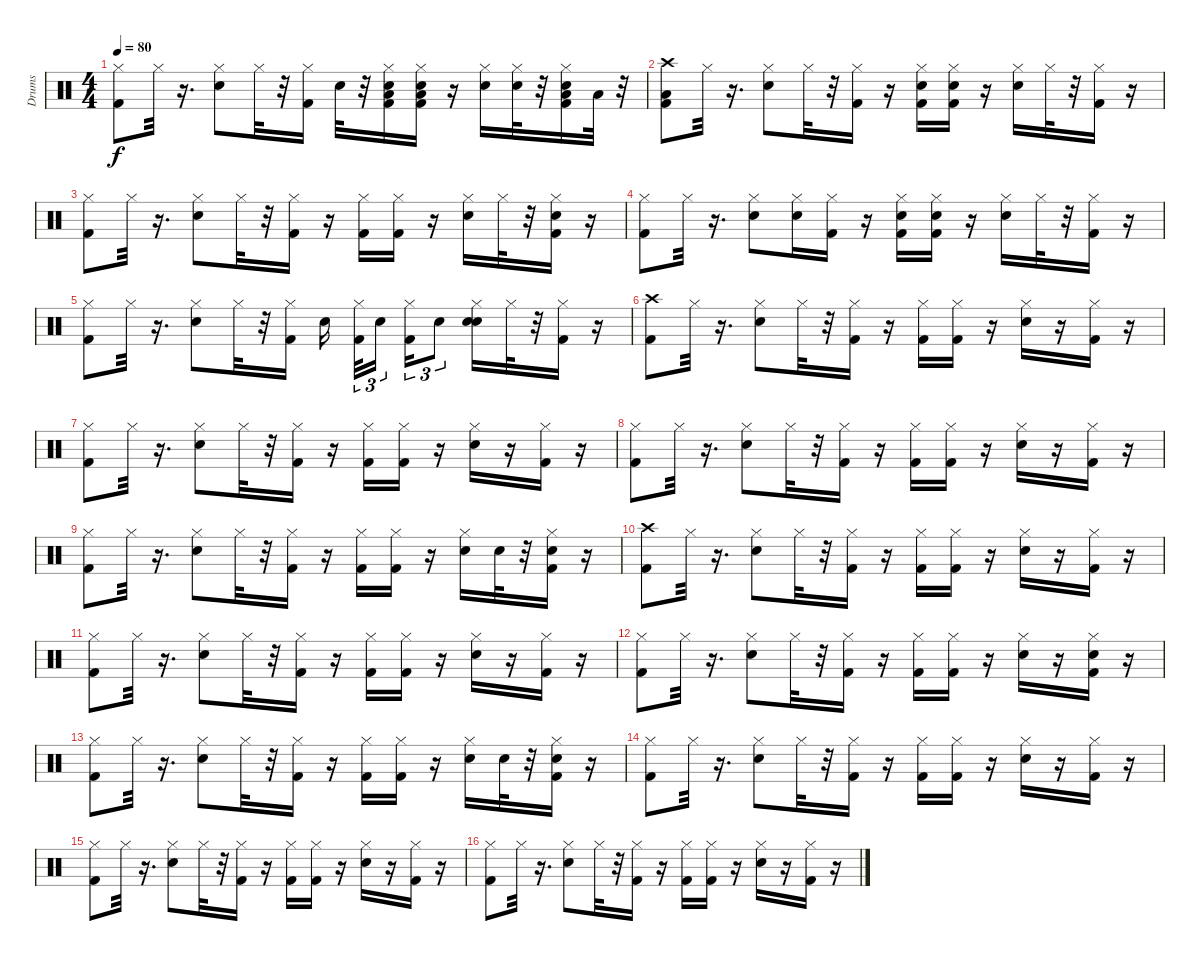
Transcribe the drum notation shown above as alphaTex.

\track ("Drums" "Drums") {instrument percussion}
\staff {score}
\articulation defaults
\ts (4 4)
\tempo 80
\clef neutral
\ks c
("Hi-Hat (closed)" "Kick (hit) 2").8{dy f} "Hi-Hat (closed)".32 r.16{d} ("Hi-Hat (closed)" "Snare (hit) 2").8 "Hi-Hat (closed)".32 r.32 ("Kick (hit) 2" "Hi-Hat (closed)").16 "Snare (hit) 2".32 r.32 ("Low Floor Tom (hit)" "Snare (hit) 2" "Hi-Hat (closed)" "Kick (hit) 2").16 ("Low Floor Tom (hit)" "Snare (hit) 2" "Hi-Hat (closed)" "Kick (hit) 2").16 r.16 ("Hi-Hat (closed)" "Snare (hit) 2").16 ("Snare (hit) 2" "Hi-Hat (closed)").32 r.32 ("Low Floor Tom (hit)" "Snare (hit) 2" "Hi-Hat (closed)" "Kick (hit) 2").16 "Low Floor Tom (hit)".32 r.32 |
("Low Floor Tom (hit)" "Crash high (hit)" "Kick (hit) 2").8 "Hi-Hat (closed)".32 r.16{d} ("Hi-Hat (closed)" "Snare (hit) 2").8 "Hi-Hat (closed)".32 r.32 ("Kick (hit) 2" "Hi-Hat (closed)").16 r.16 ("Snare (hit) 2" "Hi-Hat (closed)" "Kick (hit) 2").16 ("Snare (hit) 2" "Hi-Hat (closed)" "Kick (hit) 2").16 r.16 ("Hi-Hat (closed)" "Snare (hit) 2").16 "Hi-Hat (closed)".32 r.32 ("Hi-Hat (closed)" "Kick (hit) 2").16 r.16 |
("Hi-Hat (closed)" "Kick (hit) 2").8 "Hi-Hat (closed)".32 r.16{d} ("Hi-Hat (closed)" "Snare (hit) 2").8 "Hi-Hat (closed)".32 r.32 ("Kick (hit) 2" "Hi-Hat (closed)").16 r.16 ("Hi-Hat (closed)" "Kick (hit) 2").16 ("Hi-Hat (closed)" "Kick (hit) 2").16 r.16 ("Hi-Hat (closed)" "Snare (hit) 2").16 "Hi-Hat (closed)".32 r.32 ("Snare (hit) 2" "Hi-Hat (closed)" "Kick (hit) 2").16 r.16 |
("Hi-Hat (closed)" "Kick (hit) 2").8 "Hi-Hat (closed)".32 r.16{d} ("Hi-Hat (closed)" "Snare (hit) 2").8 ("Hi-Hat (closed)" "Snare (hit) 2").16 ("Kick (hit) 2" "Hi-Hat (closed)").16 r.16 ("Snare (hit) 2" "Hi-Hat (closed)" "Kick (hit) 2").16 ("Snare (hit) 2" "Hi-Hat (closed)" "Kick (hit) 2").16 r.16 ("Hi-Hat (closed)" "Snare (hit) 2").16 "Hi-Hat (closed)".32 r.32 ("Hi-Hat (closed)" "Kick (hit) 2").16 r.16 |
("Hi-Hat (closed)" "Kick (hit) 2").8 "Hi-Hat (closed)".32 r.16{d} ("Hi-Hat (closed)" "Snare (hit) 2").8 "Hi-Hat (closed)".32 r.32 ("Kick (hit) 2" "Hi-Hat (closed)").16 "Snare (hit) 2".16 ("Hi-Hat (closed)" "Kick (hit) 2").32{tu (3 2)} "Snare (hit) 2".16{tu (3 2)} ("Hi-Hat (closed)" "Kick (hit) 2").16{tu (3 2)} "Snare (hit) 2".8{tu (3 2)} ("Snare (hit) 2" "Hi-Hat (closed)" "Snare (hit) 2").16 "Hi-Hat (closed)".32 r.32 ("Hi-Hat (closed)" "Kick (hit) 2").16 r.16 |
("Crash high (hit)" "Kick (hit) 2").8 "Hi-Hat (closed)".32 r.16{d} ("Hi-Hat (closed)" "Snare (hit) 2").8 "Hi-Hat (closed)".32 r.32 ("Kick (hit) 2" "Hi-Hat (closed)").16 r.16 ("Hi-Hat (closed)" "Kick (hit) 2").16 ("Hi-Hat (closed)" "Kick (hit) 2").16 r.16 ("Hi-Hat (closed)" "Snare (hit) 2").16 r.16 ("Hi-Hat (closed)" "Kick (hit) 2").16 r.16 |
("Hi-Hat (closed)" "Kick (hit) 2").8 "Hi-Hat (closed)".32 r.16{d} ("Hi-Hat (closed)" "Snare (hit) 2").8 "Hi-Hat (closed)".32 r.32 ("Kick (hit) 2" "Hi-Hat (closed)").16 r.16 ("Hi-Hat (closed)" "Kick (hit) 2").16 ("Hi-Hat (closed)" "Kick (hit) 2").16 r.16 ("Hi-Hat (closed)" "Snare (hit) 2").16 r.16 ("Hi-Hat (closed)" "Kick (hit) 2").16 r.16 |
("Hi-Hat (closed)" "Kick (hit) 2").8 "Hi-Hat (closed)".32 r.16{d} ("Hi-Hat (closed)" "Snare (hit) 2").8 "Hi-Hat (closed)".32 r.32 ("Kick (hit) 2" "Hi-Hat (closed)").16 r.16 ("Hi-Hat (closed)" "Kick (hit) 2").16 ("Hi-Hat (closed)" "Kick (hit) 2").16 r.16 ("Hi-Hat (closed)" "Snare (hit) 2").16 r.16 ("Hi-Hat (closed)" "Kick (hit) 2").16 r.16 |
("Hi-Hat (closed)" "Kick (hit) 2").8 "Hi-Hat (closed)".32 r.16{d} ("Hi-Hat (closed)" "Snare (hit) 2").8 "Hi-Hat (closed)".32 r.32 ("Kick (hit) 2" "Hi-Hat (closed)").16 r.16 ("Hi-Hat (closed)" "Kick (hit) 2").16 ("Hi-Hat (closed)" "Kick (hit) 2").16 r.16 ("Hi-Hat (closed)" "Snare (hit) 2").16 "Snare (hit) 2".32 r.32 ("Snare (hit) 2" "Hi-Hat (closed)" "Kick (hit) 2").16 r.16 |
("Crash high (hit)" "Kick (hit) 2").8 "Hi-Hat (closed)".32 r.16{d} ("Hi-Hat (closed)" "Snare (hit) 2").8 "Hi-Hat (closed)".32 r.32 ("Kick (hit) 2" "Hi-Hat (closed)").16 r.16 ("Hi-Hat (closed)" "Kick (hit) 2").16 ("Hi-Hat (closed)" "Kick (hit) 2").16 r.16 ("Hi-Hat (closed)" "Snare (hit) 2").16 r.16 ("Hi-Hat (closed)" "Kick (hit) 2").16 r.16 |
("Hi-Hat (closed)" "Kick (hit) 2").8 "Hi-Hat (closed)".32 r.16{d} ("Hi-Hat (closed)" "Snare (hit) 2").8 "Hi-Hat (closed)".32 r.32 ("Kick (hit) 2" "Hi-Hat (closed)").16 r.16 ("Hi-Hat (closed)" "Kick (hit) 2").16 ("Hi-Hat (closed)" "Kick (hit) 2").16 r.16 ("Hi-Hat (closed)" "Snare (hit) 2").16 r.16 ("Hi-Hat (closed)" "Kick (hit) 2").16 r.16 |
("Hi-Hat (closed)" "Kick (hit) 2").8 "Hi-Hat (closed)".32 r.16{d} ("Hi-Hat (closed)" "Snare (hit) 2").8 "Hi-Hat (closed)".32 r.32 ("Kick (hit) 2" "Hi-Hat (closed)").16 r.16 ("Hi-Hat (closed)" "Kick (hit) 2").16 ("Hi-Hat (closed)" "Kick (hit) 2").16 r.16 ("Hi-Hat (closed)" "Snare (hit) 2").16 r.16 ("Snare (hit) 2" "Hi-Hat (closed)" "Kick (hit) 2").16 r.16 |
("Hi-Hat (closed)" "Kick (hit) 2").8 "Hi-Hat (closed)".32 r.16{d} ("Hi-Hat (closed)" "Snare (hit) 2").8 "Hi-Hat (closed)".32 r.32 ("Kick (hit) 2" "Hi-Hat (closed)").16 r.16 ("Hi-Hat (closed)" "Kick (hit) 2").16 ("Hi-Hat (closed)" "Kick (hit) 2").16 r.16 ("Hi-Hat (closed)" "Snare (hit) 2").16 "Snare (hit) 2".32 r.32 ("Snare (hit) 2" "Hi-Hat (closed)" "Kick (hit) 2").16 r.16 |
("Hi-Hat (closed)" "Kick (hit) 2").8 "Hi-Hat (closed)".32 r.16{d} ("Hi-Hat (closed)" "Snare (hit) 2").8 "Hi-Hat (closed)".32 r.32 ("Kick (hit) 2" "Hi-Hat (closed)").16 r.16 ("Hi-Hat (closed)" "Kick (hit) 2").16 ("Hi-Hat (closed)" "Kick (hit) 2").16 r.16 ("Hi-Hat (closed)" "Snare (hit) 2").16 r.16 ("Hi-Hat (closed)" "Kick (hit) 2").16 r.16 |
("Hi-Hat (closed)" "Kick (hit) 2").8 "Hi-Hat (closed)".32 r.16{d} ("Hi-Hat (closed)" "Snare (hit) 2").8 "Hi-Hat (closed)".32 r.32 ("Kick (hit) 2" "Hi-Hat (closed)").16 r.16 ("Hi-Hat (closed)" "Kick (hit) 2").16 ("Hi-Hat (closed)" "Kick (hit) 2").16 r.16 ("Hi-Hat (closed)" "Snare (hit) 2").16 r.16 ("Hi-Hat (closed)" "Kick (hit) 2").16 r.16 |
("Hi-Hat (closed)" "Kick (hit) 2").8 "Hi-Hat (closed)".32 r.16{d} ("Hi-Hat (closed)" "Snare (hit) 2").8 "Hi-Hat (closed)".32 r.32 ("Kick (hit) 2" "Hi-Hat (closed)").16 r.16 ("Hi-Hat (closed)" "Kick (hit) 2").16 ("Hi-Hat (closed)" "Kick (hit) 2").16 r.16 ("Hi-Hat (closed)" "Snare (hit) 2").16 r.16 ("Hi-Hat (closed)" "Kick (hit) 2").16 r.16
